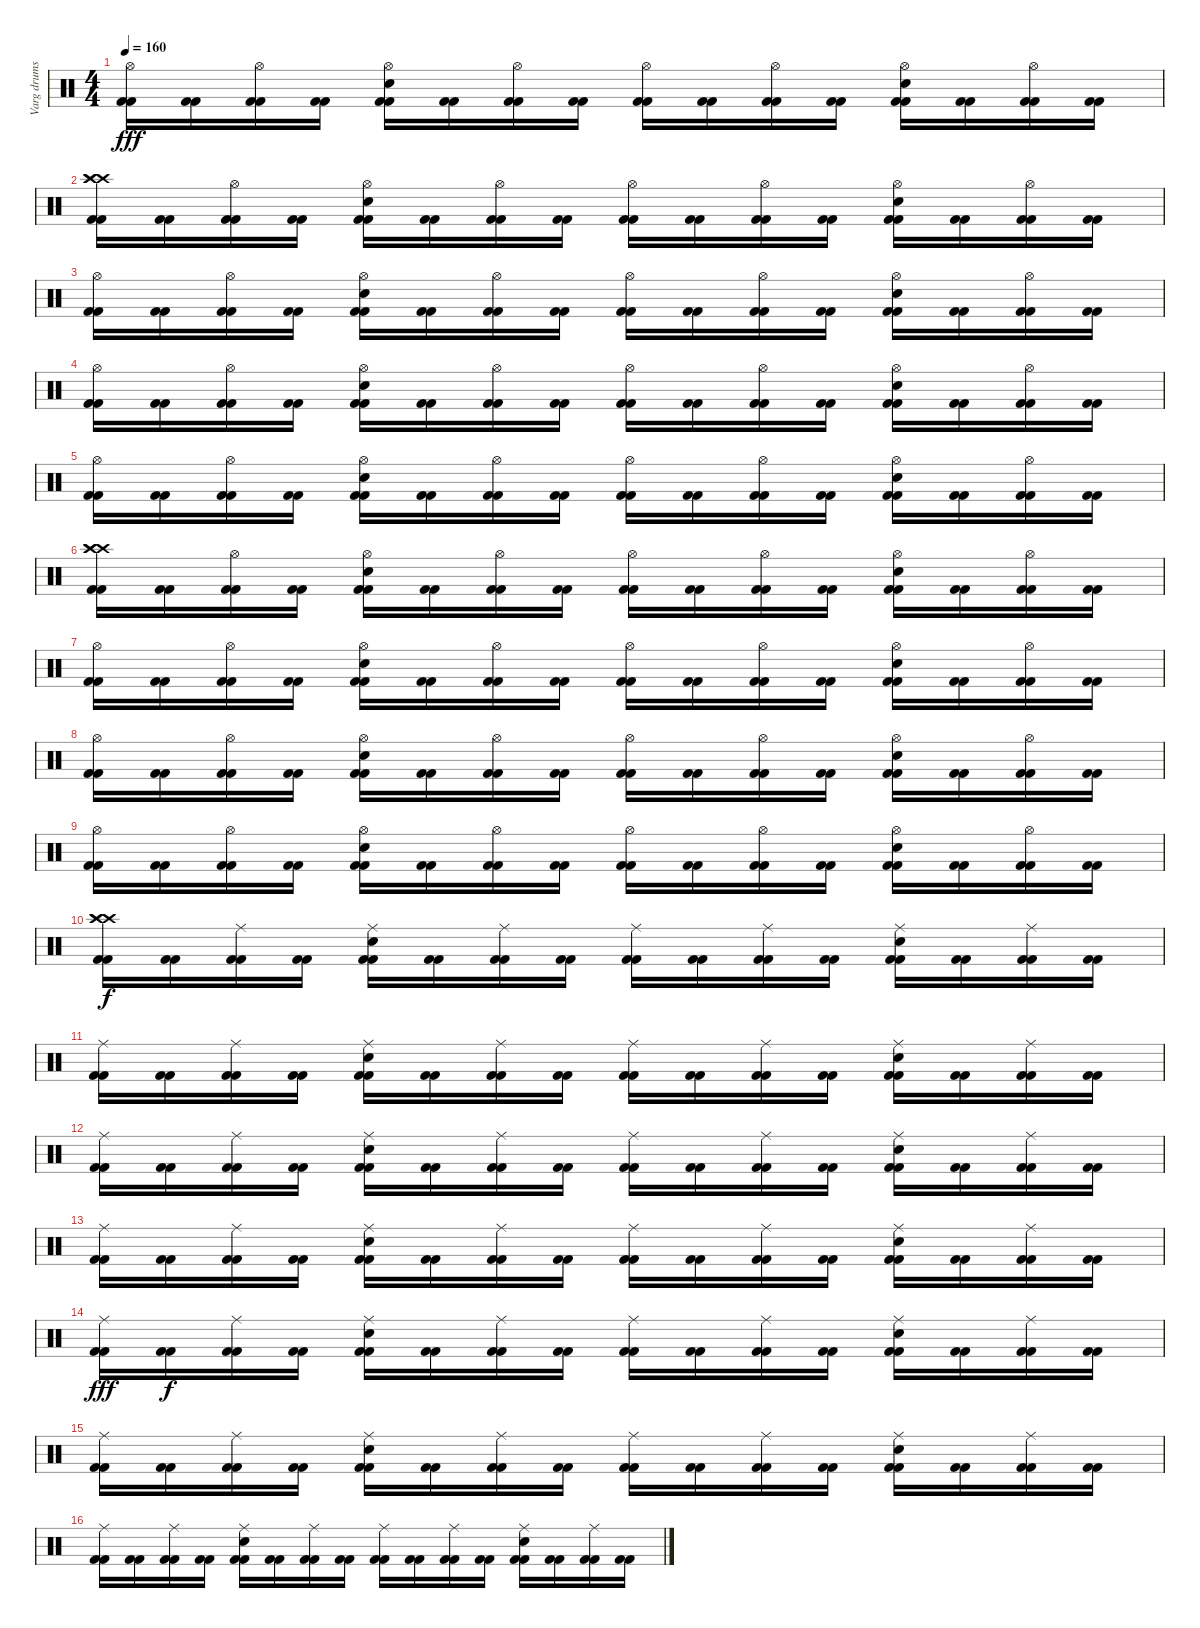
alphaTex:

\track ("Varg drums" "Varg drums") {instrument percussion}
\staff {score}
\articulation defaults
\ts (4 4)
\tempo 160
\clef neutral
\ks c
("Hi-Hat (open)" "Kick (hit) 2" "Kick (hit) 2").16{dy fff} ("Kick (hit) 2" "Kick (hit) 2").16 ("Hi-Hat (open)" "Kick (hit) 2" "Kick (hit) 2").16 ("Kick (hit) 2" "Kick (hit) 2").16 ("Hi-Hat (open)" "Electric Snare (hit)" "Kick (hit) 2" "Kick (hit) 2").16 ("Kick (hit) 2" "Kick (hit) 2").16 ("Hi-Hat (open)" "Kick (hit) 2" "Kick (hit) 2").16 ("Kick (hit) 2" "Kick (hit) 2").16 ("Hi-Hat (open)" "Kick (hit) 2" "Kick (hit) 2").16 ("Kick (hit) 2" "Kick (hit) 2").16 ("Hi-Hat (open)" "Kick (hit) 2" "Kick (hit) 2").16 ("Kick (hit) 2" "Kick (hit) 2").16 ("Hi-Hat (open)" "Electric Snare (hit)" "Kick (hit) 2" "Kick (hit) 2").16 ("Kick (hit) 2" "Kick (hit) 2").16 ("Hi-Hat (open)" "Kick (hit) 2" "Kick (hit) 2").16 ("Kick (hit) 2" "Kick (hit) 2").16 |
("Crash high (hit)" "Crash high (hit)" "Crash high (hit)" "Kick (hit) 2" "Kick (hit) 2").16 ("Kick (hit) 2" "Kick (hit) 2").16 ("Hi-Hat (open)" "Kick (hit) 2" "Kick (hit) 2").16 ("Kick (hit) 2" "Kick (hit) 2").16 ("Hi-Hat (open)" "Electric Snare (hit)" "Kick (hit) 2" "Kick (hit) 2").16 ("Kick (hit) 2" "Kick (hit) 2").16 ("Hi-Hat (open)" "Kick (hit) 2" "Kick (hit) 2").16 ("Kick (hit) 2" "Kick (hit) 2").16 ("Hi-Hat (open)" "Kick (hit) 2" "Kick (hit) 2").16 ("Kick (hit) 2" "Kick (hit) 2").16 ("Hi-Hat (open)" "Kick (hit) 2" "Kick (hit) 2").16 ("Kick (hit) 2" "Kick (hit) 2").16 ("Hi-Hat (open)" "Electric Snare (hit)" "Kick (hit) 2" "Kick (hit) 2").16 ("Kick (hit) 2" "Kick (hit) 2").16 ("Hi-Hat (open)" "Kick (hit) 2" "Kick (hit) 2").16 ("Kick (hit) 2" "Kick (hit) 2").16 |
("Hi-Hat (open)" "Kick (hit) 2" "Kick (hit) 2").16 ("Kick (hit) 2" "Kick (hit) 2").16 ("Hi-Hat (open)" "Kick (hit) 2" "Kick (hit) 2").16 ("Kick (hit) 2" "Kick (hit) 2").16 ("Hi-Hat (open)" "Electric Snare (hit)" "Kick (hit) 2" "Kick (hit) 2").16 ("Kick (hit) 2" "Kick (hit) 2").16 ("Hi-Hat (open)" "Kick (hit) 2" "Kick (hit) 2").16 ("Kick (hit) 2" "Kick (hit) 2").16 ("Hi-Hat (open)" "Kick (hit) 2" "Kick (hit) 2").16 ("Kick (hit) 2" "Kick (hit) 2").16 ("Hi-Hat (open)" "Kick (hit) 2" "Kick (hit) 2").16 ("Kick (hit) 2" "Kick (hit) 2").16 ("Hi-Hat (open)" "Electric Snare (hit)" "Kick (hit) 2" "Kick (hit) 2").16 ("Kick (hit) 2" "Kick (hit) 2").16 ("Hi-Hat (open)" "Kick (hit) 2" "Kick (hit) 2").16 ("Kick (hit) 2" "Kick (hit) 2").16 |
("Hi-Hat (open)" "Kick (hit) 2" "Kick (hit) 2").16 ("Kick (hit) 2" "Kick (hit) 2").16 ("Hi-Hat (open)" "Kick (hit) 2" "Kick (hit) 2").16 ("Kick (hit) 2" "Kick (hit) 2").16 ("Hi-Hat (open)" "Electric Snare (hit)" "Kick (hit) 2" "Kick (hit) 2").16 ("Kick (hit) 2" "Kick (hit) 2").16 ("Hi-Hat (open)" "Kick (hit) 2" "Kick (hit) 2").16 ("Kick (hit) 2" "Kick (hit) 2").16 ("Hi-Hat (open)" "Kick (hit) 2" "Kick (hit) 2").16 ("Kick (hit) 2" "Kick (hit) 2").16 ("Hi-Hat (open)" "Kick (hit) 2" "Kick (hit) 2").16 ("Kick (hit) 2" "Kick (hit) 2").16 ("Hi-Hat (open)" "Electric Snare (hit)" "Kick (hit) 2" "Kick (hit) 2").16 ("Kick (hit) 2" "Kick (hit) 2").16 ("Hi-Hat (open)" "Kick (hit) 2" "Kick (hit) 2").16 ("Kick (hit) 2" "Kick (hit) 2").16 |
("Hi-Hat (open)" "Kick (hit) 2" "Kick (hit) 2").16 ("Kick (hit) 2" "Kick (hit) 2").16 ("Hi-Hat (open)" "Kick (hit) 2" "Kick (hit) 2").16 ("Kick (hit) 2" "Kick (hit) 2").16 ("Hi-Hat (open)" "Electric Snare (hit)" "Kick (hit) 2" "Kick (hit) 2").16 ("Kick (hit) 2" "Kick (hit) 2").16 ("Hi-Hat (open)" "Kick (hit) 2" "Kick (hit) 2").16 ("Kick (hit) 2" "Kick (hit) 2").16 ("Hi-Hat (open)" "Kick (hit) 2" "Kick (hit) 2").16 ("Kick (hit) 2" "Kick (hit) 2").16 ("Hi-Hat (open)" "Kick (hit) 2" "Kick (hit) 2").16 ("Kick (hit) 2" "Kick (hit) 2").16 ("Hi-Hat (open)" "Electric Snare (hit)" "Kick (hit) 2" "Kick (hit) 2").16 ("Kick (hit) 2" "Kick (hit) 2").16 ("Hi-Hat (open)" "Kick (hit) 2" "Kick (hit) 2").16 ("Kick (hit) 2" "Kick (hit) 2").16 |
("Crash high (hit)" "Crash high (hit)" "Crash high (hit)" "Kick (hit) 2" "Kick (hit) 2").16 ("Kick (hit) 2" "Kick (hit) 2").16 ("Hi-Hat (open)" "Kick (hit) 2" "Kick (hit) 2").16 ("Kick (hit) 2" "Kick (hit) 2").16 ("Hi-Hat (open)" "Electric Snare (hit)" "Kick (hit) 2" "Kick (hit) 2").16 ("Kick (hit) 2" "Kick (hit) 2").16 ("Hi-Hat (open)" "Kick (hit) 2" "Kick (hit) 2").16 ("Kick (hit) 2" "Kick (hit) 2").16 ("Hi-Hat (open)" "Kick (hit) 2" "Kick (hit) 2").16 ("Kick (hit) 2" "Kick (hit) 2").16 ("Hi-Hat (open)" "Kick (hit) 2" "Kick (hit) 2").16 ("Kick (hit) 2" "Kick (hit) 2").16 ("Hi-Hat (open)" "Electric Snare (hit)" "Kick (hit) 2" "Kick (hit) 2").16 ("Kick (hit) 2" "Kick (hit) 2").16 ("Hi-Hat (open)" "Kick (hit) 2" "Kick (hit) 2").16 ("Kick (hit) 2" "Kick (hit) 2").16 |
("Hi-Hat (open)" "Kick (hit) 2" "Kick (hit) 2").16 ("Kick (hit) 2" "Kick (hit) 2").16 ("Hi-Hat (open)" "Kick (hit) 2" "Kick (hit) 2").16 ("Kick (hit) 2" "Kick (hit) 2").16 ("Hi-Hat (open)" "Electric Snare (hit)" "Kick (hit) 2" "Kick (hit) 2").16 ("Kick (hit) 2" "Kick (hit) 2").16 ("Hi-Hat (open)" "Kick (hit) 2" "Kick (hit) 2").16 ("Kick (hit) 2" "Kick (hit) 2").16 ("Hi-Hat (open)" "Kick (hit) 2" "Kick (hit) 2").16 ("Kick (hit) 2" "Kick (hit) 2").16 ("Hi-Hat (open)" "Kick (hit) 2" "Kick (hit) 2").16 ("Kick (hit) 2" "Kick (hit) 2").16 ("Hi-Hat (open)" "Electric Snare (hit)" "Kick (hit) 2" "Kick (hit) 2").16 ("Kick (hit) 2" "Kick (hit) 2").16 ("Hi-Hat (open)" "Kick (hit) 2" "Kick (hit) 2").16 ("Kick (hit) 2" "Kick (hit) 2").16 |
("Hi-Hat (open)" "Kick (hit) 2" "Kick (hit) 2").16 ("Kick (hit) 2" "Kick (hit) 2").16 ("Hi-Hat (open)" "Kick (hit) 2" "Kick (hit) 2").16 ("Kick (hit) 2" "Kick (hit) 2").16 ("Hi-Hat (open)" "Electric Snare (hit)" "Kick (hit) 2" "Kick (hit) 2").16 ("Kick (hit) 2" "Kick (hit) 2").16 ("Hi-Hat (open)" "Kick (hit) 2" "Kick (hit) 2").16 ("Kick (hit) 2" "Kick (hit) 2").16 ("Hi-Hat (open)" "Kick (hit) 2" "Kick (hit) 2").16 ("Kick (hit) 2" "Kick (hit) 2").16 ("Hi-Hat (open)" "Kick (hit) 2" "Kick (hit) 2").16 ("Kick (hit) 2" "Kick (hit) 2").16 ("Hi-Hat (open)" "Electric Snare (hit)" "Kick (hit) 2" "Kick (hit) 2").16 ("Kick (hit) 2" "Kick (hit) 2").16 ("Hi-Hat (open)" "Kick (hit) 2" "Kick (hit) 2").16 ("Kick (hit) 2" "Kick (hit) 2").16 |
("Hi-Hat (open)" "Kick (hit) 2" "Kick (hit) 2").16 ("Kick (hit) 2" "Kick (hit) 2").16 ("Hi-Hat (open)" "Kick (hit) 2" "Kick (hit) 2").16 ("Kick (hit) 2" "Kick (hit) 2").16 ("Hi-Hat (open)" "Electric Snare (hit)" "Kick (hit) 2" "Kick (hit) 2").16 ("Kick (hit) 2" "Kick (hit) 2").16 ("Hi-Hat (open)" "Kick (hit) 2" "Kick (hit) 2").16 ("Kick (hit) 2" "Kick (hit) 2").16 ("Hi-Hat (open)" "Kick (hit) 2" "Kick (hit) 2").16 ("Kick (hit) 2" "Kick (hit) 2").16 ("Hi-Hat (open)" "Kick (hit) 2" "Kick (hit) 2").16 ("Kick (hit) 2" "Kick (hit) 2").16 ("Hi-Hat (open)" "Electric Snare (hit)" "Kick (hit) 2" "Kick (hit) 2").16 ("Kick (hit) 2" "Kick (hit) 2").16 ("Hi-Hat (open)" "Kick (hit) 2" "Kick (hit) 2").16 ("Kick (hit) 2" "Kick (hit) 2").16 |
("Crash high (hit)" "Crash high (hit)" "Crash high (hit)" "Kick (hit) 2" "Kick (hit) 2").16{dy f} ("Kick (hit) 2" "Kick (hit) 2").16 ("Ride (middle)" "Kick (hit) 2" "Kick (hit) 2").16 ("Kick (hit) 2" "Kick (hit) 2").16 ("Ride (middle)" "Electric Snare (hit)" "Kick (hit) 2" "Kick (hit) 2").16 ("Kick (hit) 2" "Kick (hit) 2").16 ("Ride (middle)" "Kick (hit) 2" "Kick (hit) 2").16 ("Kick (hit) 2" "Kick (hit) 2").16 ("Ride (middle)" "Kick (hit) 2" "Kick (hit) 2").16 ("Kick (hit) 2" "Kick (hit) 2").16 ("Ride (middle)" "Kick (hit) 2" "Kick (hit) 2").16 ("Kick (hit) 2" "Kick (hit) 2").16 ("Ride (middle)" "Electric Snare (hit)" "Kick (hit) 2" "Kick (hit) 2").16 ("Kick (hit) 2" "Kick (hit) 2").16 ("Ride (middle)" "Kick (hit) 2" "Kick (hit) 2").16 ("Kick (hit) 2" "Kick (hit) 2").16 |
("Ride (middle)" "Kick (hit) 2" "Kick (hit) 2").16 ("Kick (hit) 2" "Kick (hit) 2").16 ("Ride (middle)" "Kick (hit) 2" "Kick (hit) 2").16 ("Kick (hit) 2" "Kick (hit) 2").16 ("Ride (middle)" "Electric Snare (hit)" "Kick (hit) 2" "Kick (hit) 2").16 ("Kick (hit) 2" "Kick (hit) 2").16 ("Ride (middle)" "Kick (hit) 2" "Kick (hit) 2").16 ("Kick (hit) 2" "Kick (hit) 2").16 ("Ride (middle)" "Kick (hit) 2" "Kick (hit) 2").16 ("Kick (hit) 2" "Kick (hit) 2").16 ("Ride (middle)" "Kick (hit) 2" "Kick (hit) 2").16 ("Kick (hit) 2" "Kick (hit) 2").16 ("Ride (middle)" "Electric Snare (hit)" "Kick (hit) 2" "Kick (hit) 2").16 ("Kick (hit) 2" "Kick (hit) 2").16 ("Ride (middle)" "Kick (hit) 2" "Kick (hit) 2").16 ("Kick (hit) 2" "Kick (hit) 2").16 |
("Ride (middle)" "Kick (hit) 2" "Kick (hit) 2").16 ("Kick (hit) 2" "Kick (hit) 2").16 ("Ride (middle)" "Kick (hit) 2" "Kick (hit) 2").16 ("Kick (hit) 2" "Kick (hit) 2").16 ("Ride (middle)" "Electric Snare (hit)" "Kick (hit) 2" "Kick (hit) 2").16 ("Kick (hit) 2" "Kick (hit) 2").16 ("Ride (middle)" "Kick (hit) 2" "Kick (hit) 2").16 ("Kick (hit) 2" "Kick (hit) 2").16 ("Ride (middle)" "Kick (hit) 2" "Kick (hit) 2").16 ("Kick (hit) 2" "Kick (hit) 2").16 ("Ride (middle)" "Kick (hit) 2" "Kick (hit) 2").16 ("Kick (hit) 2" "Kick (hit) 2").16 ("Ride (middle)" "Electric Snare (hit)" "Kick (hit) 2" "Kick (hit) 2").16 ("Kick (hit) 2" "Kick (hit) 2").16 ("Ride (middle)" "Kick (hit) 2" "Kick (hit) 2").16 ("Kick (hit) 2" "Kick (hit) 2").16 |
("Ride (middle)" "Kick (hit) 2" "Kick (hit) 2").16 ("Kick (hit) 2" "Kick (hit) 2").16 ("Ride (middle)" "Kick (hit) 2" "Kick (hit) 2").16 ("Kick (hit) 2" "Kick (hit) 2").16 ("Ride (middle)" "Electric Snare (hit)" "Kick (hit) 2" "Kick (hit) 2").16 ("Kick (hit) 2" "Kick (hit) 2").16 ("Ride (middle)" "Kick (hit) 2" "Kick (hit) 2").16 ("Kick (hit) 2" "Kick (hit) 2").16 ("Ride (middle)" "Kick (hit) 2" "Kick (hit) 2").16 ("Kick (hit) 2" "Kick (hit) 2").16 ("Ride (middle)" "Kick (hit) 2" "Kick (hit) 2").16 ("Kick (hit) 2" "Kick (hit) 2").16 ("Ride (middle)" "Electric Snare (hit)" "Kick (hit) 2" "Kick (hit) 2").16 ("Kick (hit) 2" "Kick (hit) 2").16 ("Ride (middle)" "Kick (hit) 2" "Kick (hit) 2").16 ("Kick (hit) 2" "Kick (hit) 2").16 |
("Ride (middle)" "Kick (hit) 2" "Kick (hit) 2").16{dy fff} ("Kick (hit) 2" "Kick (hit) 2").16{dy f} ("Ride (middle)" "Kick (hit) 2" "Kick (hit) 2").16 ("Kick (hit) 2" "Kick (hit) 2").16 ("Ride (middle)" "Electric Snare (hit)" "Kick (hit) 2" "Kick (hit) 2").16 ("Kick (hit) 2" "Kick (hit) 2").16 ("Ride (middle)" "Kick (hit) 2" "Kick (hit) 2").16 ("Kick (hit) 2" "Kick (hit) 2").16 ("Ride (middle)" "Kick (hit) 2" "Kick (hit) 2").16 ("Kick (hit) 2" "Kick (hit) 2").16 ("Ride (middle)" "Kick (hit) 2" "Kick (hit) 2").16 ("Kick (hit) 2" "Kick (hit) 2").16 ("Ride (middle)" "Electric Snare (hit)" "Kick (hit) 2" "Kick (hit) 2").16 ("Kick (hit) 2" "Kick (hit) 2").16 ("Ride (middle)" "Kick (hit) 2" "Kick (hit) 2").16 ("Kick (hit) 2" "Kick (hit) 2").16 |
("Ride (middle)" "Kick (hit) 2" "Kick (hit) 2").16 ("Kick (hit) 2" "Kick (hit) 2").16 ("Ride (middle)" "Kick (hit) 2" "Kick (hit) 2").16 ("Kick (hit) 2" "Kick (hit) 2").16 ("Ride (middle)" "Electric Snare (hit)" "Kick (hit) 2" "Kick (hit) 2").16 ("Kick (hit) 2" "Kick (hit) 2").16 ("Ride (middle)" "Kick (hit) 2" "Kick (hit) 2").16 ("Kick (hit) 2" "Kick (hit) 2").16 ("Ride (middle)" "Kick (hit) 2" "Kick (hit) 2").16 ("Kick (hit) 2" "Kick (hit) 2").16 ("Ride (middle)" "Kick (hit) 2" "Kick (hit) 2").16 ("Kick (hit) 2" "Kick (hit) 2").16 ("Ride (middle)" "Electric Snare (hit)" "Kick (hit) 2" "Kick (hit) 2").16 ("Kick (hit) 2" "Kick (hit) 2").16 ("Ride (middle)" "Kick (hit) 2" "Kick (hit) 2").16 ("Kick (hit) 2" "Kick (hit) 2").16 |
("Ride (middle)" "Kick (hit) 2" "Kick (hit) 2").16 ("Kick (hit) 2" "Kick (hit) 2").16 ("Ride (middle)" "Kick (hit) 2" "Kick (hit) 2").16 ("Kick (hit) 2" "Kick (hit) 2").16 ("Ride (middle)" "Electric Snare (hit)" "Kick (hit) 2" "Kick (hit) 2").16 ("Kick (hit) 2" "Kick (hit) 2").16 ("Ride (middle)" "Kick (hit) 2" "Kick (hit) 2").16 ("Kick (hit) 2" "Kick (hit) 2").16 ("Ride (middle)" "Kick (hit) 2" "Kick (hit) 2").16 ("Kick (hit) 2" "Kick (hit) 2").16 ("Ride (middle)" "Kick (hit) 2" "Kick (hit) 2").16 ("Kick (hit) 2" "Kick (hit) 2").16 ("Ride (middle)" "Electric Snare (hit)" "Kick (hit) 2" "Kick (hit) 2").16 ("Kick (hit) 2" "Kick (hit) 2").16 ("Ride (middle)" "Kick (hit) 2" "Kick (hit) 2").16 ("Kick (hit) 2" "Kick (hit) 2").16
